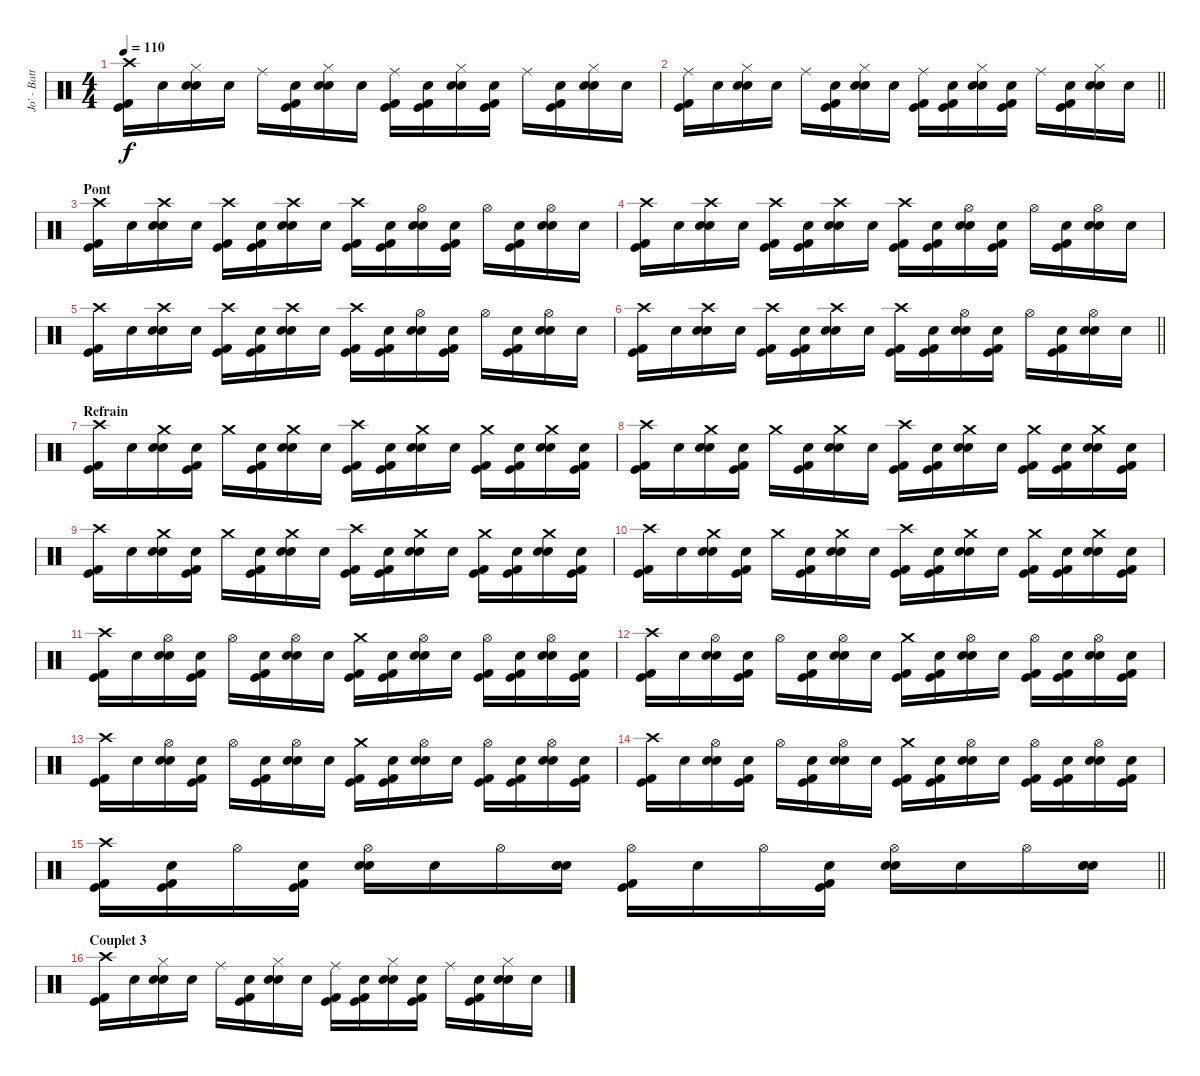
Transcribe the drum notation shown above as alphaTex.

\track ("Jo' - Batterie" "Jo' - Batt") {instrument percussion}
\staff {score}
\articulation defaults
\ts (4 4)
\tempo 110
\clef neutral
\ks c
("Crash high (hit)" "Kick (hit)" "Kick (hit) 2").16{dy f} "Snare (hit)".16 ("Hi-Hat (closed)" "Electric Snare (hit)" "Snare (hit) 2").16 "Snare (hit)".16 "Ride (middle)".16 ("Snare (hit)" "Kick (hit)" "Kick (hit) 2").16 ("Hi-Hat (closed)" "Electric Snare (hit)" "Snare (hit) 2").16 "Snare (hit)".16 ("Ride (middle)" "Kick (hit)" "Kick (hit) 2").16 ("Snare (hit)" "Kick (hit)" "Kick (hit) 2").16 ("Hi-Hat (closed)" "Electric Snare (hit)" "Snare (hit) 2").16 ("Snare (hit)" "Kick (hit)" "Kick (hit) 2").16 "Ride (middle)".16 ("Snare (hit)" "Kick (hit)" "Kick (hit) 2").16 ("Hi-Hat (closed)" "Electric Snare (hit)" "Snare (hit) 2").16 "Snare (hit)".16 |
\barLineRight lightlight
("Ride (middle)" "Kick (hit)" "Kick (hit) 2").16 "Snare (hit)".16 ("Hi-Hat (closed)" "Electric Snare (hit)" "Snare (hit) 2").16 "Snare (hit)".16 "Ride (middle)".16 ("Snare (hit)" "Kick (hit)" "Kick (hit) 2").16 ("Hi-Hat (closed)" "Electric Snare (hit)" "Snare (hit) 2").16 "Snare (hit)".16 ("Ride (middle)" "Kick (hit)" "Kick (hit) 2").16 ("Snare (hit)" "Kick (hit)" "Kick (hit) 2").16 ("Hi-Hat (closed)" "Electric Snare (hit)" "Snare (hit) 2").16 ("Snare (hit)" "Kick (hit)" "Kick (hit) 2").16 "Ride (middle)".16 ("Snare (hit)" "Kick (hit)" "Kick (hit) 2").16 ("Hi-Hat (closed)" "Electric Snare (hit)" "Snare (hit) 2").16 "Snare (hit)".16 |
\section ("" "Pont")
("Crash high (hit)" "Kick (hit)" "Kick (hit) 2").16 "Snare (hit)".16 ("Crash high (hit)" "Electric Snare (hit)" "Snare (hit) 2").16 "Snare (hit)".16 ("Crash high (hit)" "Kick (hit)" "Kick (hit) 2").16 ("Snare (hit)" "Kick (hit)" "Kick (hit) 2").16 ("Crash high (hit)" "Electric Snare (hit)" "Snare (hit) 2").16 "Snare (hit)".16 ("Crash high (hit)" "Kick (hit)" "Kick (hit) 2").16 ("Snare (hit)" "Kick (hit)" "Kick (hit) 2").16 ("Hi-Hat (open)" "Electric Snare (hit)" "Snare (hit) 2").16 ("Snare (hit)" "Kick (hit)" "Kick (hit) 2").16 "Hi-Hat (open)".16 ("Snare (hit)" "Kick (hit)" "Kick (hit) 2").16 ("Hi-Hat (open)" "Electric Snare (hit)" "Snare (hit) 2").16 "Snare (hit)".16 |
("Crash high (hit)" "Kick (hit)" "Kick (hit) 2").16 "Snare (hit)".16 ("Crash high (hit)" "Electric Snare (hit)" "Snare (hit) 2").16 "Snare (hit)".16 ("Crash high (hit)" "Kick (hit)" "Kick (hit) 2").16 ("Snare (hit)" "Kick (hit)" "Kick (hit) 2").16 ("Crash high (hit)" "Electric Snare (hit)" "Snare (hit) 2").16 "Snare (hit)".16 ("Crash high (hit)" "Kick (hit)" "Kick (hit) 2").16 ("Snare (hit)" "Kick (hit)" "Kick (hit) 2").16 ("Hi-Hat (open)" "Electric Snare (hit)" "Snare (hit) 2").16 ("Snare (hit)" "Kick (hit)" "Kick (hit) 2").16 "Hi-Hat (open)".16 ("Snare (hit)" "Kick (hit)" "Kick (hit) 2").16 ("Hi-Hat (open)" "Electric Snare (hit)" "Snare (hit) 2").16 "Snare (hit)".16 |
("Crash high (hit)" "Kick (hit)" "Kick (hit) 2").16 "Snare (hit)".16 ("Crash high (hit)" "Electric Snare (hit)" "Snare (hit) 2").16 "Snare (hit)".16 ("Crash high (hit)" "Kick (hit)" "Kick (hit) 2").16 ("Snare (hit)" "Kick (hit)" "Kick (hit) 2").16 ("Crash high (hit)" "Electric Snare (hit)" "Snare (hit) 2").16 "Snare (hit)".16 ("Crash high (hit)" "Kick (hit)" "Kick (hit) 2").16 ("Snare (hit)" "Kick (hit)" "Kick (hit) 2").16 ("Hi-Hat (open)" "Electric Snare (hit)" "Snare (hit) 2").16 ("Snare (hit)" "Kick (hit)" "Kick (hit) 2").16 "Hi-Hat (open)".16 ("Snare (hit)" "Kick (hit)" "Kick (hit) 2").16 ("Hi-Hat (open)" "Electric Snare (hit)" "Snare (hit) 2").16 "Snare (hit)".16 |
\barLineRight lightlight
("Crash high (hit)" "Kick (hit)" "Kick (hit) 2").16 "Snare (hit)".16 ("Crash high (hit)" "Electric Snare (hit)" "Snare (hit) 2").16 "Snare (hit)".16 ("Crash high (hit)" "Kick (hit)" "Kick (hit) 2").16 ("Snare (hit)" "Kick (hit)" "Kick (hit) 2").16 ("Crash high (hit)" "Electric Snare (hit)" "Snare (hit) 2").16 "Snare (hit)".16 ("Crash high (hit)" "Kick (hit)" "Kick (hit) 2").16 ("Snare (hit)" "Kick (hit)" "Kick (hit) 2").16 ("Hi-Hat (open)" "Electric Snare (hit)" "Snare (hit) 2").16 ("Snare (hit)" "Kick (hit)" "Kick (hit) 2").16 "Hi-Hat (open)".16 ("Snare (hit)" "Kick (hit)" "Kick (hit) 2").16 ("Hi-Hat (open)" "Electric Snare (hit)" "Snare (hit) 2").16 "Snare (hit)".16 |
\section ("" "Refrain")
("Crash high (hit)" "Kick (hit)" "Kick (hit) 2").16 "Snare (hit)".16 ("Crash medium (hit)" "Electric Snare (hit)" "Snare (hit) 2").16 ("Snare (hit)" "Kick (hit)" "Kick (hit) 2").16 "Crash medium (hit)".16 ("Snare (hit)" "Kick (hit)" "Kick (hit) 2").16 ("Crash medium (hit)" "Electric Snare (hit)" "Snare (hit) 2").16 "Snare (hit)".16 ("Crash high (hit)" "Kick (hit)" "Kick (hit) 2").16 ("Snare (hit)" "Kick (hit)" "Kick (hit) 2").16 ("Crash medium (hit)" "Electric Snare (hit)" "Snare (hit) 2").16 "Snare (hit)".16 ("Crash medium (hit)" "Kick (hit)" "Kick (hit) 2").16 ("Snare (hit)" "Kick (hit)" "Kick (hit) 2").16 ("Crash medium (hit)" "Electric Snare (hit)" "Snare (hit) 2").16 ("Snare (hit)" "Kick (hit)" "Kick (hit) 2").16 |
("Crash high (hit)" "Kick (hit)" "Kick (hit) 2").16 "Snare (hit)".16 ("Crash medium (hit)" "Electric Snare (hit)" "Snare (hit) 2").16 ("Snare (hit)" "Kick (hit)" "Kick (hit) 2").16 "Crash medium (hit)".16 ("Snare (hit)" "Kick (hit)" "Kick (hit) 2").16 ("Crash medium (hit)" "Electric Snare (hit)" "Snare (hit) 2").16 "Snare (hit)".16 ("Crash high (hit)" "Kick (hit)" "Kick (hit) 2").16 ("Snare (hit)" "Kick (hit)" "Kick (hit) 2").16 ("Crash medium (hit)" "Electric Snare (hit)" "Snare (hit) 2").16 "Snare (hit)".16 ("Crash medium (hit)" "Kick (hit)" "Kick (hit) 2").16 ("Snare (hit)" "Kick (hit)" "Kick (hit) 2").16 ("Crash medium (hit)" "Electric Snare (hit)" "Snare (hit) 2").16 ("Snare (hit)" "Kick (hit)" "Kick (hit) 2").16 |
("Crash high (hit)" "Kick (hit)" "Kick (hit) 2").16 "Snare (hit)".16 ("Crash medium (hit)" "Electric Snare (hit)" "Snare (hit) 2").16 ("Snare (hit)" "Kick (hit)" "Kick (hit) 2").16 "Crash medium (hit)".16 ("Snare (hit)" "Kick (hit)" "Kick (hit) 2").16 ("Crash medium (hit)" "Electric Snare (hit)" "Snare (hit) 2").16 "Snare (hit)".16 ("Crash high (hit)" "Kick (hit)" "Kick (hit) 2").16 ("Snare (hit)" "Kick (hit)" "Kick (hit) 2").16 ("Crash medium (hit)" "Electric Snare (hit)" "Snare (hit) 2").16 "Snare (hit)".16 ("Crash medium (hit)" "Kick (hit)" "Kick (hit) 2").16 ("Snare (hit)" "Kick (hit)" "Kick (hit) 2").16 ("Crash medium (hit)" "Electric Snare (hit)" "Snare (hit) 2").16 ("Snare (hit)" "Kick (hit)" "Kick (hit) 2").16 |
("Crash high (hit)" "Kick (hit)" "Kick (hit) 2").16 "Snare (hit)".16 ("Crash medium (hit)" "Electric Snare (hit)" "Snare (hit) 2").16 ("Snare (hit)" "Kick (hit)" "Kick (hit) 2").16 "Crash medium (hit)".16 ("Snare (hit)" "Kick (hit)" "Kick (hit) 2").16 ("Crash medium (hit)" "Electric Snare (hit)" "Snare (hit) 2").16 "Snare (hit)".16 ("Crash high (hit)" "Kick (hit)" "Kick (hit) 2").16 ("Snare (hit)" "Kick (hit)" "Kick (hit) 2").16 ("Crash medium (hit)" "Electric Snare (hit)" "Snare (hit) 2").16 "Snare (hit)".16 ("Crash medium (hit)" "Kick (hit)" "Kick (hit) 2").16 ("Snare (hit)" "Kick (hit)" "Kick (hit) 2").16 ("Crash medium (hit)" "Electric Snare (hit)" "Snare (hit) 2").16 ("Snare (hit)" "Kick (hit)" "Kick (hit) 2").16 |
("Crash high (hit)" "Kick (hit)" "Kick (hit) 2").16 "Snare (hit)".16 ("Hi-Hat (open)" "Electric Snare (hit)" "Snare (hit) 2").16 ("Snare (hit)" "Kick (hit)" "Kick (hit) 2").16 "Hi-Hat (open)".16 ("Snare (hit)" "Kick (hit)" "Kick (hit) 2").16 ("Hi-Hat (open)" "Electric Snare (hit)" "Snare (hit) 2").16 "Snare (hit)".16 ("Crash medium (hit)" "Kick (hit)" "Kick (hit) 2").16 ("Snare (hit)" "Kick (hit)" "Kick (hit) 2").16 ("Hi-Hat (open)" "Electric Snare (hit)" "Snare (hit) 2").16 "Snare (hit)".16 ("Hi-Hat (open)" "Kick (hit)" "Kick (hit) 2").16 ("Snare (hit)" "Kick (hit)" "Kick (hit) 2").16 ("Hi-Hat (open)" "Electric Snare (hit)" "Snare (hit) 2").16 ("Snare (hit)" "Kick (hit)" "Kick (hit) 2").16 |
("Crash high (hit)" "Kick (hit)" "Kick (hit) 2").16 "Snare (hit)".16 ("Hi-Hat (open)" "Electric Snare (hit)" "Snare (hit) 2").16 ("Snare (hit)" "Kick (hit)" "Kick (hit) 2").16 "Hi-Hat (open)".16 ("Snare (hit)" "Kick (hit)" "Kick (hit) 2").16 ("Hi-Hat (open)" "Electric Snare (hit)" "Snare (hit) 2").16 "Snare (hit)".16 ("Crash medium (hit)" "Kick (hit)" "Kick (hit) 2").16 ("Snare (hit)" "Kick (hit)" "Kick (hit) 2").16 ("Hi-Hat (open)" "Electric Snare (hit)" "Snare (hit) 2").16 "Snare (hit)".16 ("Hi-Hat (open)" "Kick (hit)" "Kick (hit) 2").16 ("Snare (hit)" "Kick (hit)" "Kick (hit) 2").16 ("Hi-Hat (open)" "Electric Snare (hit)" "Snare (hit) 2").16 ("Snare (hit)" "Kick (hit)" "Kick (hit) 2").16 |
("Crash high (hit)" "Kick (hit)" "Kick (hit) 2").16 "Snare (hit)".16 ("Hi-Hat (open)" "Electric Snare (hit)" "Snare (hit) 2").16 ("Snare (hit)" "Kick (hit)" "Kick (hit) 2").16 "Hi-Hat (open)".16 ("Snare (hit)" "Kick (hit)" "Kick (hit) 2").16 ("Hi-Hat (open)" "Electric Snare (hit)" "Snare (hit) 2").16 "Snare (hit)".16 ("Crash medium (hit)" "Kick (hit)" "Kick (hit) 2").16 ("Snare (hit)" "Kick (hit)" "Kick (hit) 2").16 ("Hi-Hat (open)" "Electric Snare (hit)" "Snare (hit) 2").16 "Snare (hit)".16 ("Hi-Hat (open)" "Kick (hit)" "Kick (hit) 2").16 ("Snare (hit)" "Kick (hit)" "Kick (hit) 2").16 ("Hi-Hat (open)" "Electric Snare (hit)" "Snare (hit) 2").16 ("Snare (hit)" "Kick (hit)" "Kick (hit) 2").16 |
("Crash high (hit)" "Kick (hit)" "Kick (hit) 2").16 "Snare (hit)".16 ("Hi-Hat (open)" "Electric Snare (hit)" "Snare (hit) 2").16 ("Snare (hit)" "Kick (hit)" "Kick (hit) 2").16 "Hi-Hat (open)".16 ("Snare (hit)" "Kick (hit)" "Kick (hit) 2").16 ("Hi-Hat (open)" "Electric Snare (hit)" "Snare (hit) 2").16 "Snare (hit)".16 ("Crash medium (hit)" "Kick (hit)" "Kick (hit) 2").16 ("Snare (hit)" "Kick (hit)" "Kick (hit) 2").16 ("Hi-Hat (open)" "Electric Snare (hit)" "Snare (hit) 2").16 "Snare (hit)".16 ("Hi-Hat (open)" "Kick (hit)" "Kick (hit) 2").16 ("Snare (hit)" "Kick (hit)" "Kick (hit) 2").16 ("Hi-Hat (open)" "Electric Snare (hit)" "Snare (hit) 2").16 ("Snare (hit)" "Kick (hit)" "Kick (hit) 2").16 |
\barLineRight lightlight
("Crash high (hit)" "Kick (hit)" "Kick (hit) 2").16 ("Snare (hit)" "Kick (hit)" "Kick (hit) 2").16 "Hi-Hat (open)".16 ("Snare (hit)" "Kick (hit)" "Kick (hit) 2").16 ("Hi-Hat (open)" "Electric Snare (hit)" "Snare (hit) 2").16 "Snare (hit)".16 "Hi-Hat (open)".16 ("Snare (hit)" "Electric Snare (hit)" "Snare (hit) 2").16 ("Hi-Hat (open)" "Kick (hit)" "Kick (hit) 2").16 "Snare (hit)".16 "Hi-Hat (open)".16 ("Snare (hit)" "Kick (hit)" "Kick (hit) 2").16 ("Hi-Hat (open)" "Electric Snare (hit)" "Snare (hit) 2").16 "Snare (hit)".16 "Hi-Hat (open)".16 ("Snare (hit)" "Electric Snare (hit)" "Snare (hit) 2").16 |
\section ("" "Couplet 3")
("Crash high (hit)" "Kick (hit)" "Kick (hit) 2").16 "Snare (hit)".16 ("Hi-Hat (closed)" "Electric Snare (hit)" "Snare (hit) 2").16 "Snare (hit)".16 "Ride (middle)".16 ("Snare (hit)" "Kick (hit)" "Kick (hit) 2").16 ("Hi-Hat (closed)" "Electric Snare (hit)" "Snare (hit) 2").16 "Snare (hit)".16 ("Ride (middle)" "Kick (hit)" "Kick (hit) 2").16 ("Snare (hit)" "Kick (hit)" "Kick (hit) 2").16 ("Hi-Hat (closed)" "Electric Snare (hit)" "Snare (hit) 2").16 ("Snare (hit)" "Kick (hit)" "Kick (hit) 2").16 "Ride (middle)".16 ("Snare (hit)" "Kick (hit)" "Kick (hit) 2").16 ("Hi-Hat (closed)" "Electric Snare (hit)" "Snare (hit) 2").16 "Snare (hit)".16
